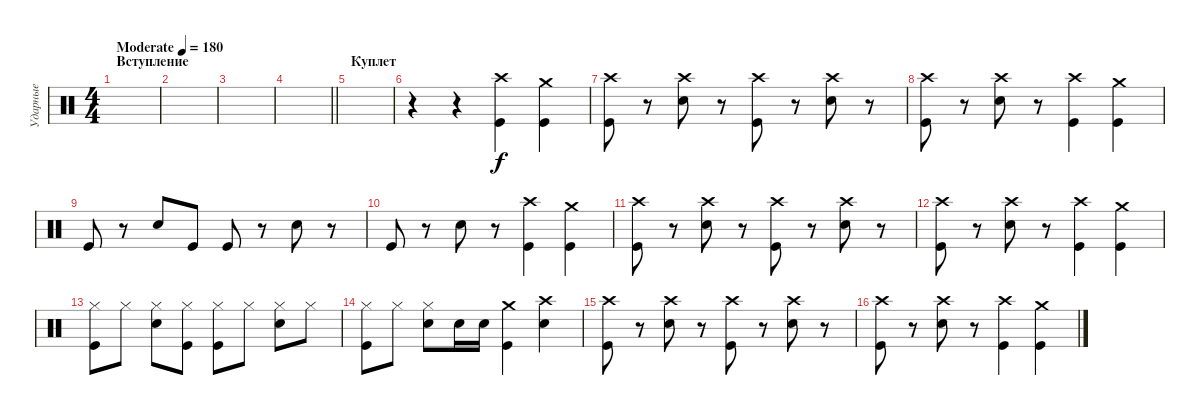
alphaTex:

\track ("Ударные" "Ударные") {instrument percussion}
\staff {score}
\articulation defaults
\ts (4 4)
\section ("" "Вступление")
\tempo (180 "Moderate")
\clef neutral
\ks c
|
|
|
\barLineRight lightlight
|
\section ("" "Куплет")
|
r.4 r.4 ("Crash high (hit)" "Kick (hit)").4 ("Crash medium (hit)" "Kick (hit)").4 |
("Crash high (hit)" "Kick (hit)").8 r.8 ("Crash high (hit)" "Electric Snare (hit)").8 r.8 ("Crash high (hit)" "Kick (hit)").8 r.8 ("Crash high (hit)" "Electric Snare (hit)").8 r.8 |
("Kick (hit)" "Crash high (hit)").8 r.8 ("Electric Snare (hit)" "Crash high (hit)").8 r.8 ("Crash high (hit)" "Kick (hit)").4 ("Kick (hit)" "Crash medium (hit)").4 |
"Kick (hit)".8 r.8 "Electric Snare (hit)".8 "Kick (hit)".8 "Kick (hit)".8 r.8 "Electric Snare (hit)".8 r.8 |
"Kick (hit)".8 r.8 "Electric Snare (hit)".8 r.8 ("Crash high (hit)" "Kick (hit)").4 ("Crash medium (hit)" "Kick (hit)").4 |
("Crash high (hit)" "Kick (hit)").8 r.8 ("Crash high (hit)" "Electric Snare (hit)").8 r.8 ("Crash high (hit)" "Kick (hit)").8 r.8 ("Crash high (hit)" "Electric Snare (hit)").8 r.8 |
("Kick (hit)" "Crash high (hit)").8 r.8 ("Electric Snare (hit)" "Crash high (hit)").8 r.8 ("Crash high (hit)" "Kick (hit)").4 ("Kick (hit)" "Crash medium (hit)").4 |
("Hi-Hat (closed)" "Kick (hit)").8 "Hi-Hat (closed)".8 ("Hi-Hat (closed)" "Electric Snare (hit)").8 ("Hi-Hat (closed)" "Kick (hit)").8 ("Hi-Hat (closed)" "Kick (hit)").8 "Hi-Hat (closed)".8 ("Hi-Hat (closed)" "Electric Snare (hit)").8 "Hi-Hat (closed)".8 |
("Hi-Hat (closed)" "Kick (hit)").8 "Hi-Hat (closed)".8 ("Hi-Hat (closed)" "Electric Snare (hit)").8 "Electric Snare (hit)".16 "Electric Snare (hit)".16 ("Crash medium (hit)" "Kick (hit)").4 ("Crash high (hit)" "Electric Snare (hit)").4 |
("Crash high (hit)" "Kick (hit)").8 r.8 ("Crash high (hit)" "Electric Snare (hit)").8 r.8 ("Crash high (hit)" "Kick (hit)").8 r.8 ("Crash high (hit)" "Electric Snare (hit)").8 r.8 |
("Kick (hit)" "Crash high (hit)").8 r.8 ("Electric Snare (hit)" "Crash high (hit)").8 r.8 ("Crash high (hit)" "Kick (hit)").4 ("Kick (hit)" "Crash medium (hit)").4
